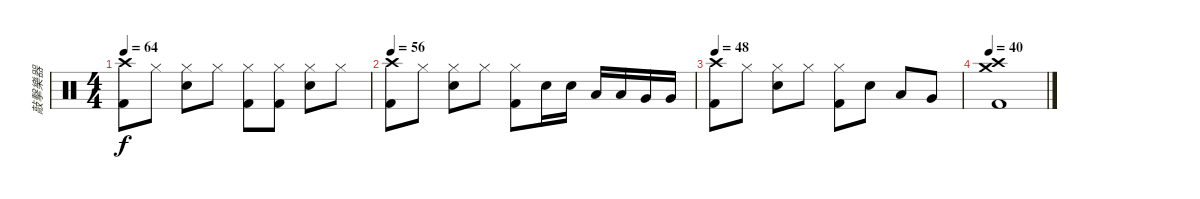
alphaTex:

\track ("敲擊樂器" "敲擊樂器") {instrument percussion}
\staff {score}
\articulation defaults
\ts (4 4)
\tempo 64
\clef neutral
\ks c
("Crash high (hit)" "Kick (hit) 2").8{dy f} "Hi-Hat (closed)".8 ("Hi-Hat (closed)" "Snare (hit) 2").8 "Hi-Hat (closed)".8 ("Hi-Hat (closed)" "Kick (hit) 2").8 ("Hi-Hat (closed)" "Kick (hit) 2").8 ("Hi-Hat (closed)" "Snare (hit) 2").8 "Hi-Hat (closed)".8 |
\tempo 56
("Crash high (hit)" "Kick (hit) 2").8 "Hi-Hat (closed)".8 ("Hi-Hat (closed)" "Snare (hit) 2").8 "Hi-Hat (closed)".8 ("Hi-Hat (closed)" "Kick (hit) 2").8 "Snare (hit) 2".16 "Snare (hit) 2".16 "Low Tom (hit)".16 "Low Tom (hit)".16 "Very Low Tom (hit)".16 "Very Low Tom (hit)".16 |
\tempo 48
("Crash high (hit)" "Kick (hit) 2").8 "Hi-Hat (closed)".8 ("Hi-Hat (closed)" "Snare (hit) 2").8 "Hi-Hat (closed)".8 ("Hi-Hat (closed)" "Kick (hit) 2").8 "Snare (hit) 2".8 "Low Tom (hit)".8 "Very Low Tom (hit)".8 |
\tempo 40
("Crash high (hit)" "Crash medium (hit)" "Kick (hit) 2").1
